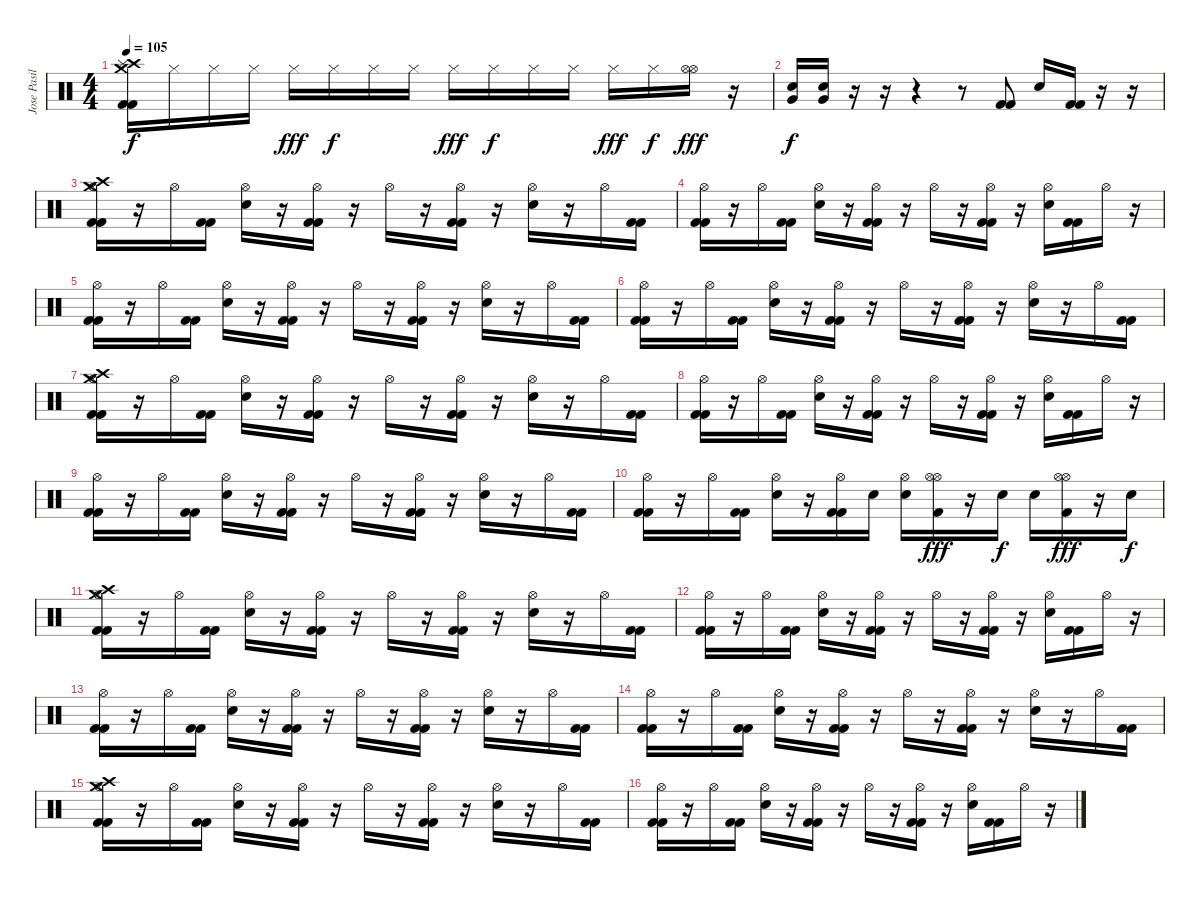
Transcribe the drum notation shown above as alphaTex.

\track ("Jose Pasillas" "Jose Pasil") {instrument percussion}
\staff {score}
\articulation defaults
\ts (4 4)
\tempo 105
\clef neutral
\ks c
("Crash high (hit)" "Splash (hit)" "Crash medium (hit)" "Kick (hit) 2" "Kick (hit) 2").16{dy f} "Hi-Hat (closed)".16 "Hi-Hat (closed)".16 "Hi-Hat (closed)".16 "Hi-Hat (closed)".16{dy fff} "Hi-Hat (closed)".16{dy f} "Hi-Hat (closed)".16 "Hi-Hat (closed)".16 "Hi-Hat (closed)".16{dy fff} "Hi-Hat (closed)".16{dy f} "Hi-Hat (closed)".16 "Hi-Hat (closed)".16 "Hi-Hat (closed)".16{dy fff} "Hi-Hat (closed)".16{dy f} ("Hi-Hat (open)" "Hi-Hat (open)").16{dy fff} r.16 |
("Very Low Tom (hit)" "Electric Snare (hit)").16{dy f} ("Very Low Tom (hit)" "Electric Snare (hit)").16 r.16 r.16 r.4 r.8 ("Kick (hit) 2" "Kick (hit) 2").8 "Electric Snare (hit)".16 ("Kick (hit) 2" "Kick (hit) 2").16 r.16 r.16 |
("Hi-Hat (open)" "Crash high (hit)" "Crash medium (hit)" "Kick (hit) 2" "Kick (hit) 2").16 r.16 "Hi-Hat (open)".16 ("Kick (hit) 2" "Kick (hit) 2").16 ("Hi-Hat (open)" "Electric Snare (hit)").16 r.16 ("Hi-Hat (open)" "Kick (hit) 2" "Kick (hit) 2").16 r.16 "Hi-Hat (open)".16 r.16 ("Hi-Hat (open)" "Kick (hit) 2" "Kick (hit) 2").16 r.16 ("Hi-Hat (open)" "Electric Snare (hit)").16 r.16 "Hi-Hat (open)".16 ("Kick (hit) 2" "Kick (hit) 2").16 |
("Hi-Hat (open)" "Kick (hit) 2" "Kick (hit) 2").16 r.16 "Hi-Hat (open)".16 ("Kick (hit) 2" "Kick (hit) 2").16 ("Hi-Hat (open)" "Electric Snare (hit)").16 r.16 ("Hi-Hat (open)" "Kick (hit) 2" "Kick (hit) 2").16 r.16 "Hi-Hat (open)".16 r.16 ("Hi-Hat (open)" "Kick (hit) 2" "Kick (hit) 2").16 r.16 ("Hi-Hat (open)" "Electric Snare (hit)").16 ("Kick (hit) 2" "Kick (hit) 2").16 "Hi-Hat (open)".16 r.16 |
("Hi-Hat (open)" "Kick (hit) 2" "Kick (hit) 2").16 r.16 "Hi-Hat (open)".16 ("Kick (hit) 2" "Kick (hit) 2").16 ("Hi-Hat (open)" "Electric Snare (hit)").16 r.16 ("Hi-Hat (open)" "Kick (hit) 2" "Kick (hit) 2").16 r.16 "Hi-Hat (open)".16 r.16 ("Hi-Hat (open)" "Kick (hit) 2" "Kick (hit) 2").16 r.16 ("Hi-Hat (open)" "Electric Snare (hit)").16 r.16 "Hi-Hat (open)".16 ("Kick (hit) 2" "Kick (hit) 2").16 |
("Hi-Hat (open)" "Kick (hit) 2" "Kick (hit) 2").16 r.16 "Hi-Hat (open)".16 ("Kick (hit) 2" "Kick (hit) 2").16 ("Hi-Hat (open)" "Electric Snare (hit)").16 r.16 ("Hi-Hat (open)" "Kick (hit) 2" "Kick (hit) 2").16 r.16 "Hi-Hat (open)".16 r.16 ("Hi-Hat (open)" "Kick (hit) 2" "Kick (hit) 2").16 r.16 ("Hi-Hat (open)" "Electric Snare (hit)").16 r.16 "Hi-Hat (open)".16 ("Kick (hit) 2" "Kick (hit) 2").16 |
("Hi-Hat (open)" "Crash high (hit)" "Crash medium (hit)" "Kick (hit) 2" "Kick (hit) 2").16 r.16 "Hi-Hat (open)".16 ("Kick (hit) 2" "Kick (hit) 2").16 ("Hi-Hat (open)" "Electric Snare (hit)").16 r.16 ("Hi-Hat (open)" "Kick (hit) 2" "Kick (hit) 2").16 r.16 "Hi-Hat (open)".16 r.16 ("Hi-Hat (open)" "Kick (hit) 2" "Kick (hit) 2").16 r.16 ("Hi-Hat (open)" "Electric Snare (hit)").16 r.16 "Hi-Hat (open)".16 ("Kick (hit) 2" "Kick (hit) 2").16 |
("Hi-Hat (open)" "Kick (hit) 2" "Kick (hit) 2").16 r.16 "Hi-Hat (open)".16 ("Kick (hit) 2" "Kick (hit) 2").16 ("Hi-Hat (open)" "Electric Snare (hit)").16 r.16 ("Hi-Hat (open)" "Kick (hit) 2" "Kick (hit) 2").16 r.16 "Hi-Hat (open)".16 r.16 ("Hi-Hat (open)" "Kick (hit) 2" "Kick (hit) 2").16 r.16 ("Hi-Hat (open)" "Electric Snare (hit)").16 ("Kick (hit) 2" "Kick (hit) 2").16 "Hi-Hat (open)".16 r.16 |
("Hi-Hat (open)" "Kick (hit) 2" "Kick (hit) 2").16 r.16 "Hi-Hat (open)".16 ("Kick (hit) 2" "Kick (hit) 2").16 ("Hi-Hat (open)" "Electric Snare (hit)").16 r.16 ("Hi-Hat (open)" "Kick (hit) 2" "Kick (hit) 2").16 r.16 "Hi-Hat (open)".16 r.16 ("Hi-Hat (open)" "Kick (hit) 2" "Kick (hit) 2").16 r.16 ("Hi-Hat (open)" "Electric Snare (hit)").16 r.16 "Hi-Hat (open)".16 ("Kick (hit) 2" "Kick (hit) 2").16 |
("Hi-Hat (open)" "Kick (hit) 2" "Kick (hit) 2").16 r.16 "Hi-Hat (open)".16 ("Kick (hit) 2" "Kick (hit) 2").16 ("Hi-Hat (open)" "Electric Snare (hit)").16 r.16 ("Hi-Hat (open)" "Kick (hit) 2" "Kick (hit) 2").16 "Electric Snare (hit)".16 ("Hi-Hat (open)" "Electric Snare (hit)").16 ("Hi-Hat (open)" "Hi-Hat (open)" "Kick (hit) 2").16{dy fff} r.16 "Electric Snare (hit)".16{dy f} "Electric Snare (hit)".16 ("Hi-Hat (open)" "Hi-Hat (open)" "Kick (hit) 2").16{dy fff} r.16 "Electric Snare (hit)".16{dy f} |
("Hi-Hat (open)" "Crash high (hit)" "Crash medium (hit)" "Kick (hit) 2" "Kick (hit) 2").16 r.16 "Hi-Hat (open)".16 ("Kick (hit) 2" "Kick (hit) 2").16 ("Hi-Hat (open)" "Electric Snare (hit)").16 r.16 ("Hi-Hat (open)" "Kick (hit) 2" "Kick (hit) 2").16 r.16 "Hi-Hat (open)".16 r.16 ("Hi-Hat (open)" "Kick (hit) 2" "Kick (hit) 2").16 r.16 ("Hi-Hat (open)" "Electric Snare (hit)").16 r.16 "Hi-Hat (open)".16 ("Kick (hit) 2" "Kick (hit) 2").16 |
("Hi-Hat (open)" "Kick (hit) 2" "Kick (hit) 2").16 r.16 "Hi-Hat (open)".16 ("Kick (hit) 2" "Kick (hit) 2").16 ("Hi-Hat (open)" "Electric Snare (hit)").16 r.16 ("Hi-Hat (open)" "Kick (hit) 2" "Kick (hit) 2").16 r.16 "Hi-Hat (open)".16 r.16 ("Hi-Hat (open)" "Kick (hit) 2" "Kick (hit) 2").16 r.16 ("Hi-Hat (open)" "Electric Snare (hit)").16 ("Kick (hit) 2" "Kick (hit) 2").16 "Hi-Hat (open)".16 r.16 |
("Hi-Hat (open)" "Kick (hit) 2" "Kick (hit) 2").16 r.16 "Hi-Hat (open)".16 ("Kick (hit) 2" "Kick (hit) 2").16 ("Hi-Hat (open)" "Electric Snare (hit)").16 r.16 ("Hi-Hat (open)" "Kick (hit) 2" "Kick (hit) 2").16 r.16 "Hi-Hat (open)".16 r.16 ("Hi-Hat (open)" "Kick (hit) 2" "Kick (hit) 2").16 r.16 ("Hi-Hat (open)" "Electric Snare (hit)").16 r.16 "Hi-Hat (open)".16 ("Kick (hit) 2" "Kick (hit) 2").16 |
("Hi-Hat (open)" "Kick (hit) 2" "Kick (hit) 2").16 r.16 "Hi-Hat (open)".16 ("Kick (hit) 2" "Kick (hit) 2").16 ("Hi-Hat (open)" "Electric Snare (hit)").16 r.16 ("Hi-Hat (open)" "Kick (hit) 2" "Kick (hit) 2").16 r.16 "Hi-Hat (open)".16 r.16 ("Hi-Hat (open)" "Kick (hit) 2" "Kick (hit) 2").16 r.16 ("Hi-Hat (open)" "Electric Snare (hit)").16 r.16 "Hi-Hat (open)".16 ("Kick (hit) 2" "Kick (hit) 2").16 |
("Hi-Hat (open)" "Crash high (hit)" "Crash medium (hit)" "Kick (hit) 2" "Kick (hit) 2").16 r.16 "Hi-Hat (open)".16 ("Kick (hit) 2" "Kick (hit) 2").16 ("Hi-Hat (open)" "Electric Snare (hit)").16 r.16 ("Hi-Hat (open)" "Kick (hit) 2" "Kick (hit) 2").16 r.16 "Hi-Hat (open)".16 r.16 ("Hi-Hat (open)" "Kick (hit) 2" "Kick (hit) 2").16 r.16 ("Hi-Hat (open)" "Electric Snare (hit)").16 r.16 "Hi-Hat (open)".16 ("Kick (hit) 2" "Kick (hit) 2").16 |
("Hi-Hat (open)" "Kick (hit) 2" "Kick (hit) 2").16 r.16 "Hi-Hat (open)".16 ("Kick (hit) 2" "Kick (hit) 2").16 ("Hi-Hat (open)" "Electric Snare (hit)").16 r.16 ("Hi-Hat (open)" "Kick (hit) 2" "Kick (hit) 2").16 r.16 "Hi-Hat (open)".16 r.16 ("Hi-Hat (open)" "Kick (hit) 2" "Kick (hit) 2").16 r.16 ("Hi-Hat (open)" "Electric Snare (hit)").16 ("Kick (hit) 2" "Kick (hit) 2").16 "Hi-Hat (open)".16 r.16
